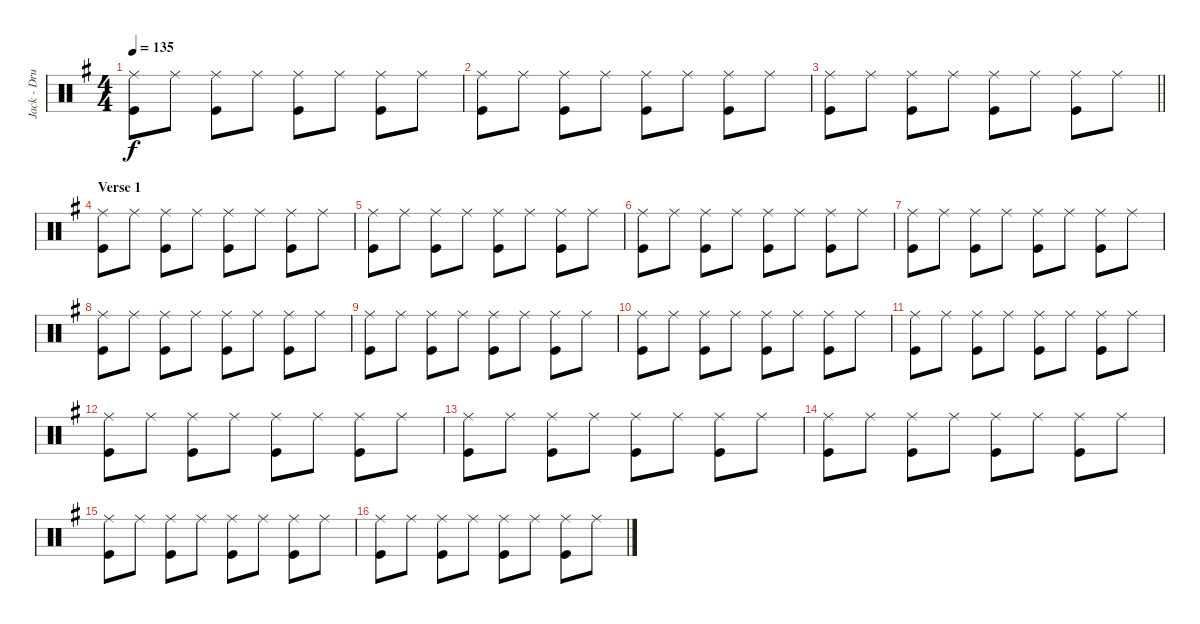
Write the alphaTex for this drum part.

\track ("Jack - Drums" "Jack - Dru") {instrument percussion}
\staff {score}
\articulation defaults
\ts (4 4)
\tempo 135
\clef neutral
\ks g
("Ride (middle)" "Kick (hit)").8{dy f} "Ride (middle)".8 ("Ride (middle)" "Kick (hit)").8 "Ride (middle)".8 ("Ride (middle)" "Kick (hit)").8 "Ride (middle)".8 ("Ride (middle)" "Kick (hit)").8 "Ride (middle)".8 |
("Ride (middle)" "Kick (hit)").8 "Ride (middle)".8 ("Ride (middle)" "Kick (hit)").8 "Ride (middle)".8 ("Ride (middle)" "Kick (hit)").8 "Ride (middle)".8 ("Ride (middle)" "Kick (hit)").8 "Ride (middle)".8 |
\barLineRight lightlight
("Ride (middle)" "Kick (hit)").8 "Ride (middle)".8 ("Ride (middle)" "Kick (hit)").8 "Ride (middle)".8 ("Ride (middle)" "Kick (hit)").8 "Ride (middle)".8 ("Ride (middle)" "Kick (hit)").8 "Ride (middle)".8 |
\section ("" "Verse 1")
("Ride (middle)" "Kick (hit)").8 "Ride (middle)".8 ("Ride (middle)" "Kick (hit)").8 "Ride (middle)".8 ("Ride (middle)" "Kick (hit)").8 "Ride (middle)".8 ("Ride (middle)" "Kick (hit)").8 "Ride (middle)".8 |
("Ride (middle)" "Kick (hit)").8 "Ride (middle)".8 ("Ride (middle)" "Kick (hit)").8 "Ride (middle)".8 ("Ride (middle)" "Kick (hit)").8 "Ride (middle)".8 ("Ride (middle)" "Kick (hit)").8 "Ride (middle)".8 |
("Ride (middle)" "Kick (hit)").8 "Ride (middle)".8 ("Ride (middle)" "Kick (hit)").8 "Ride (middle)".8 ("Ride (middle)" "Kick (hit)").8 "Ride (middle)".8 ("Ride (middle)" "Kick (hit)").8 "Ride (middle)".8 |
("Ride (middle)" "Kick (hit)").8 "Ride (middle)".8 ("Ride (middle)" "Kick (hit)").8 "Ride (middle)".8 ("Ride (middle)" "Kick (hit)").8 "Ride (middle)".8 ("Ride (middle)" "Kick (hit)").8 "Ride (middle)".8 |
("Ride (middle)" "Kick (hit)").8 "Ride (middle)".8 ("Ride (middle)" "Kick (hit)").8 "Ride (middle)".8 ("Ride (middle)" "Kick (hit)").8 "Ride (middle)".8 ("Ride (middle)" "Kick (hit)").8 "Ride (middle)".8 |
("Ride (middle)" "Kick (hit)").8 "Ride (middle)".8 ("Ride (middle)" "Kick (hit)").8 "Ride (middle)".8 ("Ride (middle)" "Kick (hit)").8 "Ride (middle)".8 ("Ride (middle)" "Kick (hit)").8 "Ride (middle)".8 |
("Ride (middle)" "Kick (hit)").8 "Ride (middle)".8 ("Ride (middle)" "Kick (hit)").8 "Ride (middle)".8 ("Ride (middle)" "Kick (hit)").8 "Ride (middle)".8 ("Ride (middle)" "Kick (hit)").8 "Ride (middle)".8 |
("Ride (middle)" "Kick (hit)").8 "Ride (middle)".8 ("Ride (middle)" "Kick (hit)").8 "Ride (middle)".8 ("Ride (middle)" "Kick (hit)").8 "Ride (middle)".8 ("Ride (middle)" "Kick (hit)").8 "Ride (middle)".8 |
("Ride (middle)" "Kick (hit)").8 "Ride (middle)".8 ("Ride (middle)" "Kick (hit)").8 "Ride (middle)".8 ("Ride (middle)" "Kick (hit)").8 "Ride (middle)".8 ("Ride (middle)" "Kick (hit)").8 "Ride (middle)".8 |
("Ride (middle)" "Kick (hit)").8 "Ride (middle)".8 ("Ride (middle)" "Kick (hit)").8 "Ride (middle)".8 ("Ride (middle)" "Kick (hit)").8 "Ride (middle)".8 ("Ride (middle)" "Kick (hit)").8 "Ride (middle)".8 |
("Ride (middle)" "Kick (hit)").8 "Ride (middle)".8 ("Ride (middle)" "Kick (hit)").8 "Ride (middle)".8 ("Ride (middle)" "Kick (hit)").8 "Ride (middle)".8 ("Ride (middle)" "Kick (hit)").8 "Ride (middle)".8 |
("Ride (middle)" "Kick (hit)").8 "Ride (middle)".8 ("Ride (middle)" "Kick (hit)").8 "Ride (middle)".8 ("Ride (middle)" "Kick (hit)").8 "Ride (middle)".8 ("Ride (middle)" "Kick (hit)").8 "Ride (middle)".8 |
("Ride (middle)" "Kick (hit)").8 "Ride (middle)".8 ("Ride (middle)" "Kick (hit)").8 "Ride (middle)".8 ("Ride (middle)" "Kick (hit)").8 "Ride (middle)".8 ("Ride (middle)" "Kick (hit)").8 "Ride (middle)".8
